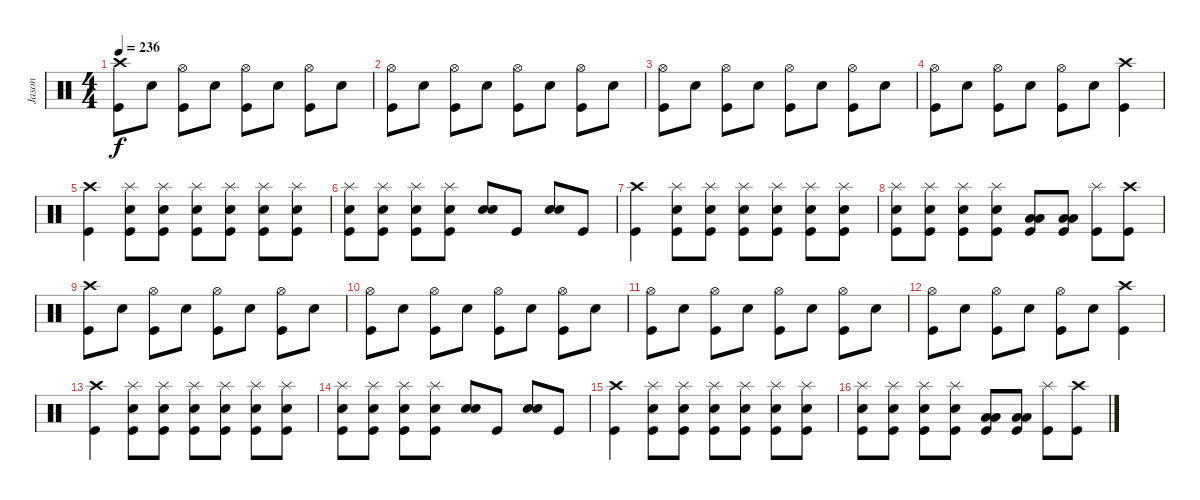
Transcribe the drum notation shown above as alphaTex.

\track ("Jason" "Jason") {instrument percussion}
\staff {score}
\articulation defaults
\ts (4 4)
\tempo 236
\clef neutral
\ks c
("Crash high (hit)" "Kick (hit)").8{dy f} "Electric Snare (hit)".8 ("Hi-Hat (open)" "Kick (hit)").8 "Electric Snare (hit)".8 ("Hi-Hat (open)" "Kick (hit)").8 "Electric Snare (hit)".8 ("Hi-Hat (open)" "Kick (hit)").8 "Electric Snare (hit)".8 |
("Hi-Hat (open)" "Kick (hit)").8 "Electric Snare (hit)".8 ("Hi-Hat (open)" "Kick (hit)").8 "Electric Snare (hit)".8 ("Hi-Hat (open)" "Kick (hit)").8 "Electric Snare (hit)".8 ("Hi-Hat (open)" "Kick (hit)").8 "Electric Snare (hit)".8 |
("Hi-Hat (open)" "Kick (hit)").8 "Electric Snare (hit)".8 ("Hi-Hat (open)" "Kick (hit)").8 "Electric Snare (hit)".8 ("Hi-Hat (open)" "Kick (hit)").8 "Electric Snare (hit)".8 ("Hi-Hat (open)" "Kick (hit)").8 "Electric Snare (hit)".8 |
("Hi-Hat (open)" "Kick (hit)").8 "Electric Snare (hit)".8 ("Hi-Hat (open)" "Kick (hit)").8 "Electric Snare (hit)".8 ("Hi-Hat (open)" "Kick (hit)").8 "Electric Snare (hit)".8 ("Crash high (hit)" "Kick (hit)").4 |
("Crash high (hit)" "Kick (hit)").4 ("Splash (hit)" "Electric Snare (hit)" "Kick (hit)").8 ("Splash (hit)" "Electric Snare (hit)" "Kick (hit)").8 ("Splash (hit)" "Electric Snare (hit)" "Kick (hit)").8 ("Splash (hit)" "Electric Snare (hit)" "Kick (hit)").8 ("Splash (hit)" "Electric Snare (hit)" "Kick (hit)").8 ("Splash (hit)" "Electric Snare (hit)" "Kick (hit)").8 |
("Splash (hit)" "Electric Snare (hit)" "Kick (hit)").8 ("Splash (hit)" "Electric Snare (hit)" "Kick (hit)").8 ("Splash (hit)" "Electric Snare (hit)" "Kick (hit)").8 ("Splash (hit)" "Electric Snare (hit)" "Kick (hit)").8 ("Electric Snare (hit)" "Electric Snare (hit)").8 "Kick (hit)".8 ("Electric Snare (hit)" "Electric Snare (hit)").8 "Kick (hit)".8 |
("Crash high (hit)" "Kick (hit)").4 ("Splash (hit)" "Electric Snare (hit)" "Kick (hit)").8 ("Splash (hit)" "Electric Snare (hit)" "Kick (hit)").8 ("Splash (hit)" "Electric Snare (hit)" "Kick (hit)").8 ("Splash (hit)" "Electric Snare (hit)" "Kick (hit)").8 ("Splash (hit)" "Electric Snare (hit)" "Kick (hit)").8 ("Splash (hit)" "Electric Snare (hit)" "Kick (hit)").8 |
("Splash (hit)" "Electric Snare (hit)" "Kick (hit)").8 ("Splash (hit)" "Electric Snare (hit)" "Kick (hit)").8 ("Splash (hit)" "Electric Snare (hit)" "Kick (hit)").8 ("Splash (hit)" "Electric Snare (hit)" "Kick (hit)").8 ("Low Floor Tom (hit)" "Low Floor Tom (hit)" "Kick (hit)").8 ("Low Floor Tom (hit)" "Low Floor Tom (hit)" "Kick (hit)").8 ("Splash (hit)" "Kick (hit)").8 ("Crash high (hit)" "Kick (hit)").8 |
("Crash high (hit)" "Kick (hit)").8 "Electric Snare (hit)".8 ("Hi-Hat (open)" "Kick (hit)").8 "Electric Snare (hit)".8 ("Hi-Hat (open)" "Kick (hit)").8 "Electric Snare (hit)".8 ("Hi-Hat (open)" "Kick (hit)").8 "Electric Snare (hit)".8 |
("Hi-Hat (open)" "Kick (hit)").8 "Electric Snare (hit)".8 ("Hi-Hat (open)" "Kick (hit)").8 "Electric Snare (hit)".8 ("Hi-Hat (open)" "Kick (hit)").8 "Electric Snare (hit)".8 ("Hi-Hat (open)" "Kick (hit)").8 "Electric Snare (hit)".8 |
("Hi-Hat (open)" "Kick (hit)").8 "Electric Snare (hit)".8 ("Hi-Hat (open)" "Kick (hit)").8 "Electric Snare (hit)".8 ("Hi-Hat (open)" "Kick (hit)").8 "Electric Snare (hit)".8 ("Hi-Hat (open)" "Kick (hit)").8 "Electric Snare (hit)".8 |
("Hi-Hat (open)" "Kick (hit)").8 "Electric Snare (hit)".8 ("Hi-Hat (open)" "Kick (hit)").8 "Electric Snare (hit)".8 ("Hi-Hat (open)" "Kick (hit)").8 "Electric Snare (hit)".8 ("Crash high (hit)" "Kick (hit)").4 |
("Crash high (hit)" "Kick (hit)").4 ("Splash (hit)" "Electric Snare (hit)" "Kick (hit)").8 ("Splash (hit)" "Electric Snare (hit)" "Kick (hit)").8 ("Splash (hit)" "Electric Snare (hit)" "Kick (hit)").8 ("Splash (hit)" "Electric Snare (hit)" "Kick (hit)").8 ("Splash (hit)" "Electric Snare (hit)" "Kick (hit)").8 ("Splash (hit)" "Electric Snare (hit)" "Kick (hit)").8 |
("Splash (hit)" "Electric Snare (hit)" "Kick (hit)").8 ("Splash (hit)" "Electric Snare (hit)" "Kick (hit)").8 ("Splash (hit)" "Electric Snare (hit)" "Kick (hit)").8 ("Splash (hit)" "Electric Snare (hit)" "Kick (hit)").8 ("Electric Snare (hit)" "Electric Snare (hit)").8 "Kick (hit)".8 ("Electric Snare (hit)" "Electric Snare (hit)").8 "Kick (hit)".8 |
("Crash high (hit)" "Kick (hit)").4 ("Splash (hit)" "Electric Snare (hit)" "Kick (hit)").8 ("Splash (hit)" "Electric Snare (hit)" "Kick (hit)").8 ("Splash (hit)" "Electric Snare (hit)" "Kick (hit)").8 ("Splash (hit)" "Electric Snare (hit)" "Kick (hit)").8 ("Splash (hit)" "Electric Snare (hit)" "Kick (hit)").8 ("Splash (hit)" "Electric Snare (hit)" "Kick (hit)").8 |
("Splash (hit)" "Electric Snare (hit)" "Kick (hit)").8 ("Splash (hit)" "Electric Snare (hit)" "Kick (hit)").8 ("Splash (hit)" "Electric Snare (hit)" "Kick (hit)").8 ("Splash (hit)" "Electric Snare (hit)" "Kick (hit)").8 ("Low Floor Tom (hit)" "Low Floor Tom (hit)" "Kick (hit)").8 ("Low Floor Tom (hit)" "Low Floor Tom (hit)" "Kick (hit)").8 ("Splash (hit)" "Kick (hit)").8 ("Crash high (hit)" "Kick (hit)").8
